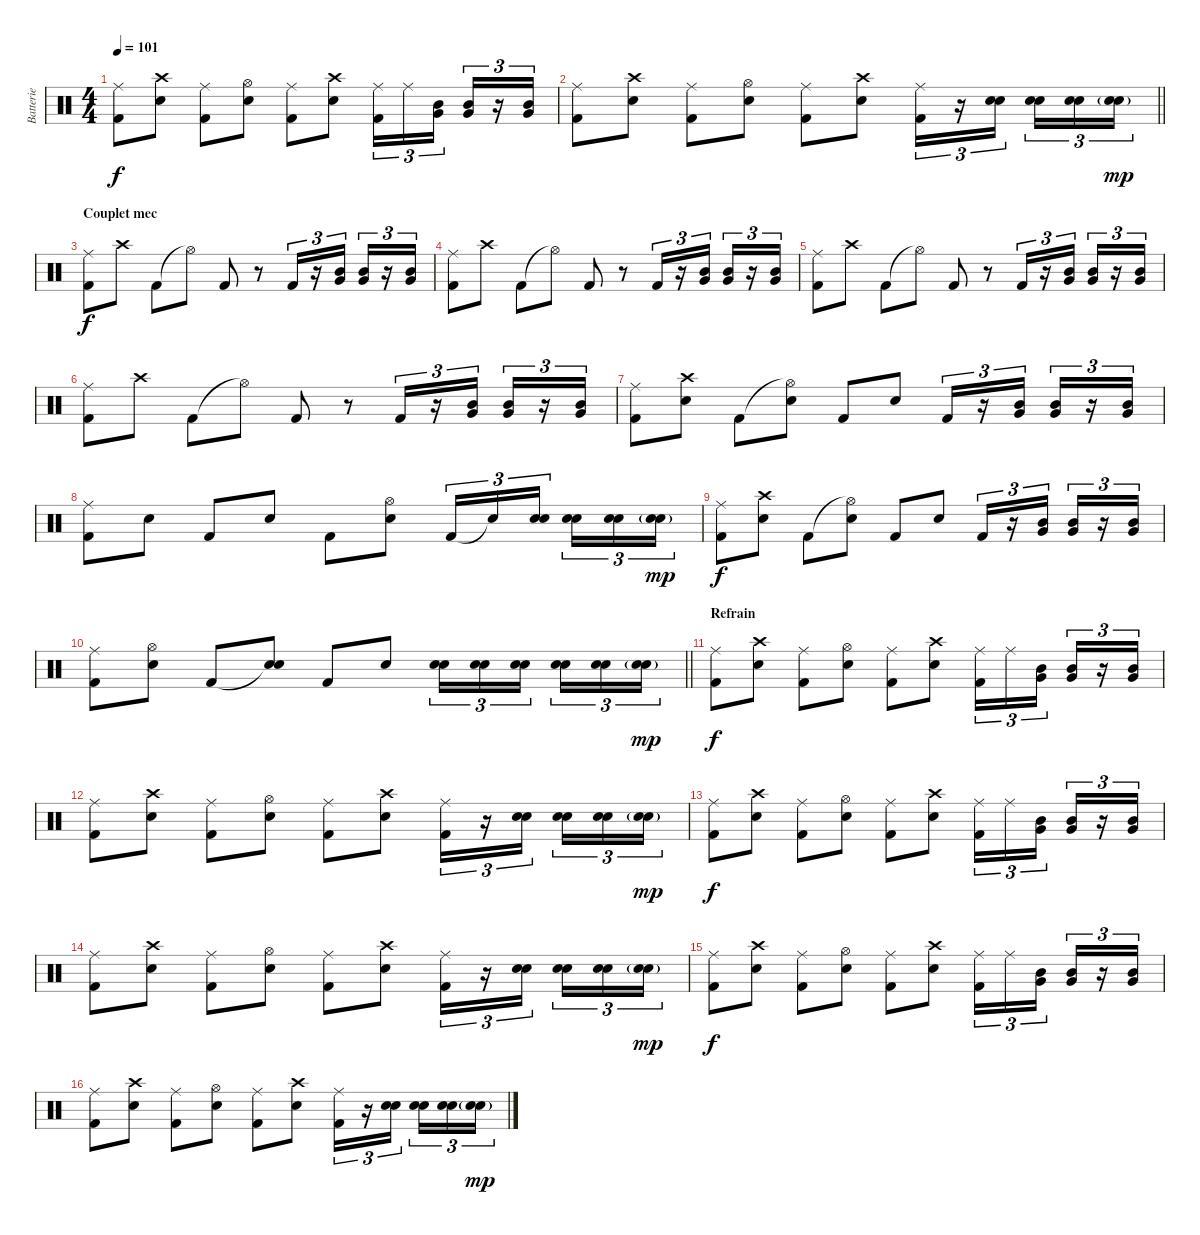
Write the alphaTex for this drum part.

\track ("Batterie" "Batterie") {instrument percussion}
\staff {score}
\articulation defaults
\ts (4 4)
\tempo 101
\clef neutral
\ks c
("Ride (middle)" "Kick (hit) 2").8{dy f} ("Crash high (hit)" "Electric Snare (hit)").8 ("Ride (middle)" "Kick (hit) 2").8 ("Hi-Hat (open)" "Electric Snare (hit)").8 ("Ride (middle)" "Kick (hit) 2").8 ("Crash high (hit)" "Electric Snare (hit)").8 ("Ride (middle)" "Kick (hit) 2").16{tu (3 2)} "Ride (middle)".16{tu (3 2)} ("Very Low Tom (hit)" "Mid Tom (hit)").16{tu (3 2) beam splitsecondary} ("Very Low Tom (hit)" "Mid Tom (hit)").16{tu (3 2)} r.16{tu (3 2)} ("Very Low Tom (hit)" "Mid Tom (hit)").16{tu (3 2)} |
\barLineRight lightlight
("Ride (middle)" "Kick (hit) 2").8 ("Crash high (hit)" "Electric Snare (hit)").8 ("Ride (middle)" "Kick (hit) 2").8 ("Hi-Hat (open)" "Electric Snare (hit)").8 ("Ride (middle)" "Kick (hit) 2").8 ("Crash high (hit)" "Electric Snare (hit)").8 ("Ride (middle)" "Kick (hit) 2").16{tu (3 2)} r.16{tu (3 2)} ("Snare (hit) 2" "Electric Snare (hit)").16{tu (3 2) beam splitsecondary} ("Snare (hit) 2" "Electric Snare (hit)").16{tu (3 2)} ("Snare (hit) 2" "Electric Snare (hit)").16{tu (3 2)} ("Snare (hit) 2"{g} "Electric Snare (hit)"{g}).16{tu (3 2) dy mp} |
\section ("" "Couplet mec")
("Ride (middle)" "Kick (hit) 2").8{dy f} "Crash high (hit)".8 "Kick (hit) 2".8 "Hi-Hat (open)"{t}.8 "Kick (hit) 2".8 r.8 "Kick (hit) 2".16{tu (3 2)} r.16{tu (3 2)} ("Very Low Tom (hit)" "Mid Tom (hit)").16{tu (3 2)} ("Very Low Tom (hit)" "Mid Tom (hit)").16{tu (3 2)} r.16{tu (3 2)} ("Very Low Tom (hit)" "Mid Tom (hit)").16{tu (3 2)} |
("Ride (middle)" "Kick (hit) 2").8 "Crash high (hit)".8 "Kick (hit) 2".8 "Hi-Hat (open)"{t}.8 "Kick (hit) 2".8 r.8 "Kick (hit) 2".16{tu (3 2)} r.16{tu (3 2)} ("Very Low Tom (hit)" "Mid Tom (hit)").16{tu (3 2)} ("Very Low Tom (hit)" "Mid Tom (hit)").16{tu (3 2)} r.16{tu (3 2)} ("Very Low Tom (hit)" "Mid Tom (hit)").16{tu (3 2)} |
("Ride (middle)" "Kick (hit) 2").8 "Crash high (hit)".8 "Kick (hit) 2".8 "Hi-Hat (open)"{t}.8 "Kick (hit) 2".8 r.8 "Kick (hit) 2".16{tu (3 2)} r.16{tu (3 2)} ("Very Low Tom (hit)" "Mid Tom (hit)").16{tu (3 2)} ("Very Low Tom (hit)" "Mid Tom (hit)").16{tu (3 2)} r.16{tu (3 2)} ("Very Low Tom (hit)" "Mid Tom (hit)").16{tu (3 2)} |
("Ride (middle)" "Kick (hit) 2").8 "Crash high (hit)".8 "Kick (hit) 2".8 "Hi-Hat (open)"{t}.8 "Kick (hit) 2".8 r.8 "Kick (hit) 2".16{tu (3 2)} r.16{tu (3 2)} ("Very Low Tom (hit)" "Mid Tom (hit)").16{tu (3 2)} ("Very Low Tom (hit)" "Mid Tom (hit)").16{tu (3 2)} r.16{tu (3 2)} ("Very Low Tom (hit)" "Mid Tom (hit)").16{tu (3 2)} |
("Ride (middle)" "Kick (hit) 2").8 ("Crash high (hit)" "Electric Snare (hit)").8 "Kick (hit) 2".8 ("Hi-Hat (open)"{t} "Electric Snare (hit)").8 "Kick (hit) 2".8 "Electric Snare (hit)".8 "Kick (hit) 2".16{tu (3 2)} r.16{tu (3 2)} ("Very Low Tom (hit)" "Mid Tom (hit)").16{tu (3 2)} ("Very Low Tom (hit)" "Mid Tom (hit)").16{tu (3 2)} r.16{tu (3 2)} ("Very Low Tom (hit)" "Mid Tom (hit)").16{tu (3 2)} |
("Ride (middle)" "Kick (hit) 2").8 "Electric Snare (hit)".8 "Kick (hit) 2".8 "Electric Snare (hit)".8 "Kick (hit) 2".8 ("Hi-Hat (open)" "Electric Snare (hit)").8 "Kick (hit) 2".16{tu (3 2)} "Snare (hit)"{t}.16{tu (3 2)} ("Snare (hit) 2" "Electric Snare (hit)").16{tu (3 2) beam splitsecondary} ("Snare (hit) 2" "Electric Snare (hit)").16{tu (3 2)} ("Snare (hit) 2" "Electric Snare (hit)").16{tu (3 2)} ("Snare (hit) 2"{g} "Electric Snare (hit)"{g}).16{tu (3 2) dy mp} |
("Ride (middle)" "Kick (hit) 2").8{dy f} ("Crash high (hit)" "Electric Snare (hit)").8 "Kick (hit) 2".8 ("Hi-Hat (open)"{t} "Electric Snare (hit)").8 "Kick (hit) 2".8 "Electric Snare (hit)".8 "Kick (hit) 2".16{tu (3 2)} r.16{tu (3 2)} ("Very Low Tom (hit)" "Mid Tom (hit)").16{tu (3 2)} ("Very Low Tom (hit)" "Mid Tom (hit)").16{tu (3 2)} r.16{tu (3 2)} ("Very Low Tom (hit)" "Mid Tom (hit)").16{tu (3 2)} |
\barLineRight lightlight
("Ride (middle)" "Kick (hit) 2").8 ("Hi-Hat (open)" "Electric Snare (hit)").8 "Kick (hit) 2".8 ("Snare (hit)"{t} "Electric Snare (hit)").8 "Kick (hit) 2".8 "Electric Snare (hit)".8 ("Snare (hit) 2" "Electric Snare (hit)").16{tu (3 2)} ("Snare (hit) 2" "Electric Snare (hit)").16{tu (3 2)} ("Snare (hit) 2" "Electric Snare (hit)").16{tu (3 2) beam splitsecondary} ("Snare (hit) 2" "Electric Snare (hit)").16{tu (3 2)} ("Snare (hit) 2" "Electric Snare (hit)").16{tu (3 2)} ("Snare (hit) 2"{g} "Electric Snare (hit)"{g}).16{tu (3 2) dy mp} |
\section ("" "Refrain")
("Ride (middle)" "Kick (hit) 2").8{dy f} ("Crash high (hit)" "Electric Snare (hit)").8 ("Ride (middle)" "Kick (hit) 2").8 ("Hi-Hat (open)" "Electric Snare (hit)").8 ("Ride (middle)" "Kick (hit) 2").8 ("Crash high (hit)" "Electric Snare (hit)").8 ("Ride (middle)" "Kick (hit) 2").16{tu (3 2)} "Ride (middle)".16{tu (3 2)} ("Very Low Tom (hit)" "Mid Tom (hit)").16{tu (3 2) beam splitsecondary} ("Very Low Tom (hit)" "Mid Tom (hit)").16{tu (3 2)} r.16{tu (3 2)} ("Very Low Tom (hit)" "Mid Tom (hit)").16{tu (3 2)} |
("Ride (middle)" "Kick (hit) 2").8 ("Crash high (hit)" "Electric Snare (hit)").8 ("Ride (middle)" "Kick (hit) 2").8 ("Hi-Hat (open)" "Electric Snare (hit)").8 ("Ride (middle)" "Kick (hit) 2").8 ("Crash high (hit)" "Electric Snare (hit)").8 ("Ride (middle)" "Kick (hit) 2").16{tu (3 2)} r.16{tu (3 2)} ("Snare (hit) 2" "Electric Snare (hit)").16{tu (3 2) beam splitsecondary} ("Snare (hit) 2" "Electric Snare (hit)").16{tu (3 2)} ("Snare (hit) 2" "Electric Snare (hit)").16{tu (3 2)} ("Snare (hit) 2"{g} "Electric Snare (hit)"{g}).16{tu (3 2) dy mp} |
("Ride (middle)" "Kick (hit) 2").8{dy f} ("Crash high (hit)" "Electric Snare (hit)").8 ("Ride (middle)" "Kick (hit) 2").8 ("Hi-Hat (open)" "Electric Snare (hit)").8 ("Ride (middle)" "Kick (hit) 2").8 ("Crash high (hit)" "Electric Snare (hit)").8 ("Ride (middle)" "Kick (hit) 2").16{tu (3 2)} "Ride (middle)".16{tu (3 2)} ("Very Low Tom (hit)" "Mid Tom (hit)").16{tu (3 2) beam splitsecondary} ("Very Low Tom (hit)" "Mid Tom (hit)").16{tu (3 2)} r.16{tu (3 2)} ("Very Low Tom (hit)" "Mid Tom (hit)").16{tu (3 2)} |
("Ride (middle)" "Kick (hit) 2").8 ("Crash high (hit)" "Electric Snare (hit)").8 ("Ride (middle)" "Kick (hit) 2").8 ("Hi-Hat (open)" "Electric Snare (hit)").8 ("Ride (middle)" "Kick (hit) 2").8 ("Crash high (hit)" "Electric Snare (hit)").8 ("Ride (middle)" "Kick (hit) 2").16{tu (3 2)} r.16{tu (3 2)} ("Snare (hit) 2" "Electric Snare (hit)").16{tu (3 2) beam splitsecondary} ("Snare (hit) 2" "Electric Snare (hit)").16{tu (3 2)} ("Snare (hit) 2" "Electric Snare (hit)").16{tu (3 2)} ("Snare (hit) 2"{g} "Electric Snare (hit)"{g}).16{tu (3 2) dy mp} |
("Ride (middle)" "Kick (hit) 2").8{dy f} ("Crash high (hit)" "Electric Snare (hit)").8 ("Ride (middle)" "Kick (hit) 2").8 ("Hi-Hat (open)" "Electric Snare (hit)").8 ("Ride (middle)" "Kick (hit) 2").8 ("Crash high (hit)" "Electric Snare (hit)").8 ("Ride (middle)" "Kick (hit) 2").16{tu (3 2)} "Ride (middle)".16{tu (3 2)} ("Very Low Tom (hit)" "Mid Tom (hit)").16{tu (3 2) beam splitsecondary} ("Very Low Tom (hit)" "Mid Tom (hit)").16{tu (3 2)} r.16{tu (3 2)} ("Very Low Tom (hit)" "Mid Tom (hit)").16{tu (3 2)} |
("Ride (middle)" "Kick (hit) 2").8 ("Crash high (hit)" "Electric Snare (hit)").8 ("Ride (middle)" "Kick (hit) 2").8 ("Hi-Hat (open)" "Electric Snare (hit)").8 ("Ride (middle)" "Kick (hit) 2").8 ("Crash high (hit)" "Electric Snare (hit)").8 ("Ride (middle)" "Kick (hit) 2").16{tu (3 2)} r.16{tu (3 2)} ("Snare (hit) 2" "Electric Snare (hit)").16{tu (3 2) beam splitsecondary} ("Snare (hit) 2" "Electric Snare (hit)").16{tu (3 2)} ("Snare (hit) 2" "Electric Snare (hit)").16{tu (3 2)} ("Snare (hit) 2"{g} "Electric Snare (hit)"{g}).16{tu (3 2) dy mp}
